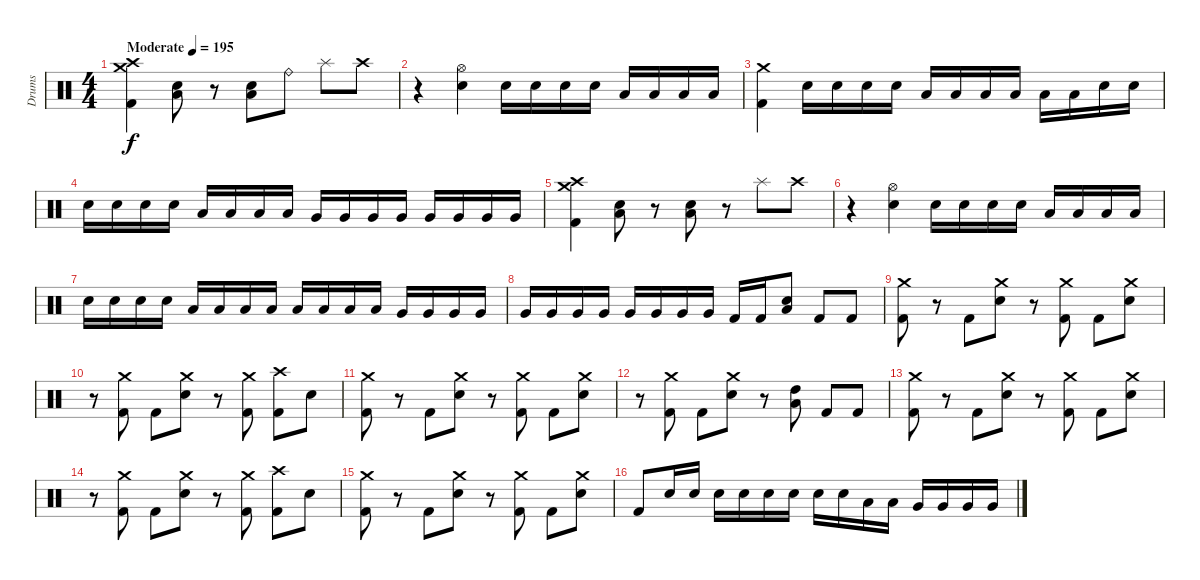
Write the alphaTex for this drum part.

\track ("Drums" "Drums") {instrument percussion}
\staff {score}
\articulation defaults
\ts (4 4)
\tempo (195 "Moderate")
\clef neutral
\ks c
("Crash medium (hit)" "Crash high (hit)" "Kick (hit) 2").4{dy f} ("Low Tom (hit)" "Electric Snare (hit)").8 r.8 ("Low Tom (hit)" "Electric Snare (hit)").8 "Ride (bell)".8 "Splash (hit)".8 "Crash high (hit)".8 |
r.4 ("Hi-Hat (open)" "Electric Snare (hit)").4 "Electric Snare (hit)".16 "Electric Snare (hit)".16 "Electric Snare (hit)".16 "Electric Snare (hit)".16 "Low Tom (hit)".16 "Low Tom (hit)".16 "Low Tom (hit)".16 "Low Tom (hit)".16 |
("Crash medium (hit)" "Kick (hit) 2").4 "Electric Snare (hit)".16 "Electric Snare (hit)".16 "Electric Snare (hit)".16 "Electric Snare (hit)".16 "Low Tom (hit)".16 "Low Tom (hit)".16 "Low Tom (hit)".16 "Low Tom (hit)".16 "Low Tom (hit)".16 "Low Tom (hit)".16 "Electric Snare (hit)".16 "Electric Snare (hit)".16 |
"Electric Snare (hit)".16 "Electric Snare (hit)".16 "Electric Snare (hit)".16 "Electric Snare (hit)".16 "Low Tom (hit)".16 "Low Tom (hit)".16 "Low Tom (hit)".16 "Low Tom (hit)".16 "Very Low Tom (hit)".16 "Very Low Tom (hit)".16 "Very Low Tom (hit)".16 "Very Low Tom (hit)".16 "Very Low Tom (hit)".16 "Very Low Tom (hit)".16 "Very Low Tom (hit)".16 "Very Low Tom (hit)".16 |
("Crash medium (hit)" "Crash high (hit)" "Kick (hit) 2").4 ("Low Tom (hit)" "Electric Snare (hit)").8 r.8 ("Low Tom (hit)" "Electric Snare (hit)").8 r.8 "Splash (hit)".8 "Crash high (hit)".8 |
r.4 ("Hi-Hat (open)" "Electric Snare (hit)").4 "Electric Snare (hit)".16 "Electric Snare (hit)".16 "Electric Snare (hit)".16 "Electric Snare (hit)".16 "Low Tom (hit)".16 "Low Tom (hit)".16 "Low Tom (hit)".16 "Low Tom (hit)".16 |
"Electric Snare (hit)".16 "Electric Snare (hit)".16 "Electric Snare (hit)".16 "Electric Snare (hit)".16 "Low Tom (hit)".16 "Low Tom (hit)".16 "Low Tom (hit)".16 "Low Tom (hit)".16 "Low Tom (hit)".16 "Low Tom (hit)".16 "Low Tom (hit)".16 "Low Tom (hit)".16 "Very Low Tom (hit)".16 "Very Low Tom (hit)".16 "Very Low Tom (hit)".16 "Very Low Tom (hit)".16 |
"Very Low Tom (hit)".16 "Very Low Tom (hit)".16 "Very Low Tom (hit)".16 "Very Low Tom (hit)".16 "Very Low Tom (hit)".16 "Very Low Tom (hit)".16 "Very Low Tom (hit)".16 "Very Low Tom (hit)".16 "Kick (hit) 2".16 "Kick (hit) 2".16 ("Low Tom (hit)" "Electric Snare (hit)").8 "Kick (hit) 2".8 "Kick (hit) 2".8 |
("Crash medium (hit)" "Kick (hit) 2").8 r.8 "Kick (hit) 2".8 ("Crash medium (hit)" "Electric Snare (hit)").8 r.8 ("Crash medium (hit)" "Kick (hit) 2").8 "Kick (hit) 2".8 ("Crash medium (hit)" "Electric Snare (hit)").8 |
r.8 ("Crash medium (hit)" "Kick (hit) 2").8 "Kick (hit) 2".8 ("Crash medium (hit)" "Electric Snare (hit)").8 r.8 ("Crash medium (hit)" "Kick (hit) 2").8 ("Crash high (hit)" "Kick (hit) 2").8 "Electric Snare (hit)".8 |
("Crash medium (hit)" "Kick (hit) 2").8 r.8 "Kick (hit) 2".8 ("Crash medium (hit)" "Electric Snare (hit)").8 r.8 ("Crash medium (hit)" "Kick (hit) 2").8 "Kick (hit) 2".8 ("Crash medium (hit)" "Electric Snare (hit)").8 |
r.8 ("Crash medium (hit)" "Kick (hit) 2").8 "Kick (hit) 2".8 ("Crash medium (hit)" "Electric Snare (hit)").8 r.8 ("High Tom (hit)" "Low Tom (hit)").8 "Kick (hit) 2".8 "Kick (hit) 2".8 |
("Crash medium (hit)" "Kick (hit) 2").8 r.8 "Kick (hit) 2".8 ("Crash medium (hit)" "Electric Snare (hit)").8 r.8 ("Crash medium (hit)" "Kick (hit) 2").8 "Kick (hit) 2".8 ("Crash medium (hit)" "Electric Snare (hit)").8 |
r.8 ("Crash medium (hit)" "Kick (hit) 2").8 "Kick (hit) 2".8 ("Crash medium (hit)" "Electric Snare (hit)").8 r.8 ("Crash medium (hit)" "Kick (hit) 2").8 ("Crash high (hit)" "Kick (hit) 2").8 "Electric Snare (hit)".8 |
("Crash medium (hit)" "Kick (hit) 2").8 r.8 "Kick (hit) 2".8 ("Crash medium (hit)" "Electric Snare (hit)").8 r.8 ("Crash medium (hit)" "Kick (hit) 2").8 "Kick (hit) 2".8 ("Crash medium (hit)" "Electric Snare (hit)").8 |
"Kick (hit) 2".8 "Electric Snare (hit)".16 "Electric Snare (hit)".16 "Electric Snare (hit)".16 "Electric Snare (hit)".16 "Electric Snare (hit)".16 "Electric Snare (hit)".16 "Electric Snare (hit)".16 "Electric Snare (hit)".16 "Low Tom (hit)".16 "Low Tom (hit)".16 "Very Low Tom (hit)".16 "Very Low Tom (hit)".16 "Very Low Tom (hit)".16 "Very Low Tom (hit)".16
